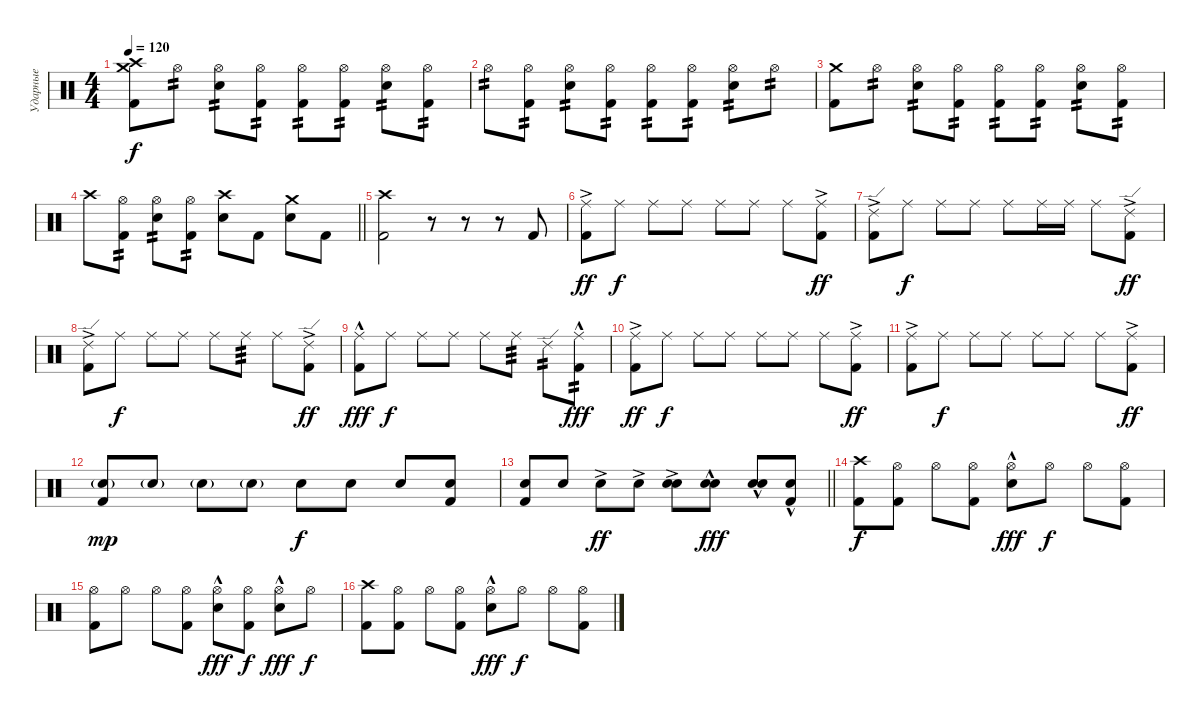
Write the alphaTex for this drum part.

\track ("Ударные" "Ударные") {instrument percussion}
\staff {score}
\articulation defaults
\ts (4 4)
\tempo 120
\clef neutral
\ks c
("Crash high (hit)" "Crash medium (hit)" "Kick (hit) 2").8{dy f} "Hi-Hat (open)".8{tp 2} ("Hi-Hat (open)" "Electric Snare (hit)").8{tp 2} ("Hi-Hat (open)" "Kick (hit) 2").8{tp 2} ("Hi-Hat (open)" "Kick (hit) 2").8{tp 2} ("Hi-Hat (open)" "Kick (hit) 2").8{tp 2} ("Hi-Hat (open)" "Electric Snare (hit)").8{tp 2} ("Hi-Hat (open)" "Kick (hit) 2").8{tp 2} |
"Hi-Hat (open)".8{tp 2} ("Hi-Hat (open)" "Kick (hit) 2").8{tp 2} ("Hi-Hat (open)" "Electric Snare (hit)").8{tp 2} ("Hi-Hat (open)" "Kick (hit) 2").8{tp 2} ("Hi-Hat (open)" "Kick (hit) 2").8{tp 2} ("Hi-Hat (open)" "Kick (hit) 2").8{tp 2} ("Hi-Hat (open)" "Electric Snare (hit)").8{tp 2} "Hi-Hat (open)".8{tp 2} |
("Crash medium (hit)" "Kick (hit) 2").8 "Hi-Hat (open)".8{tp 2} ("Hi-Hat (open)" "Electric Snare (hit)").8{tp 2} ("Hi-Hat (open)" "Kick (hit) 2").8{tp 2} ("Hi-Hat (open)" "Kick (hit) 2").8{tp 2} ("Hi-Hat (open)" "Kick (hit) 2").8{tp 2} ("Hi-Hat (open)" "Electric Snare (hit)").8{tp 2} ("Hi-Hat (open)" "Kick (hit) 2").8{tp 2} |
\barLineRight lightlight "Crash high (hit)".8
("Hi-Hat (open)" "Kick (hit) 2").8{tp 2} ("Hi-Hat (open)" "Electric Snare (hit)").8{tp 2} ("Hi-Hat (open)" "Kick (hit) 2").8{tp 2} ("Crash high (hit)" "Electric Snare (hit)").8 "Kick (hit) 2".8 ("Crash medium (hit)" "Electric Snare (hit)").8 "Kick (hit) 2".8 |
("Crash high (hit)" "Kick (hit) 2").2 r.8 r.8 r.8 "Kick (hit) 2".8 |
("Kick (hit) 2" "Ride (middle)"{ac}).8{dy ff} "Ride (middle)".8{dy f} "Ride (middle)".8 "Ride (middle)".8 "Ride (middle)".8 "Ride (middle)".8 "Ride (middle)".8 ("Kick (hit) 2" "Ride (middle)"{ac}).8{dy ff} |
("Kick (hit) 2" "Ride (edge) 2"{ac}).8 "Ride (middle)".8{dy f} "Ride (middle)".8 "Ride (middle)".8 "Ride (middle)".8 "Ride (middle)".16 "Ride (middle)".16 "Ride (middle)".8 ("Kick (hit) 2" "Ride (edge) 2"{ac}).8{dy ff} |
("Kick (hit) 2" "Ride (edge) 2"{ac}).8 "Ride (middle)".8{dy f} "Ride (middle)".8 "Ride (middle)".8 "Ride (middle)".8 "Ride (middle)".8{tp 3} "Ride (middle)".8 ("Kick (hit) 2"{ac} "Ride (edge) 2"{ac}).8{dy ff} |
("Kick (hit) 2" "Ride (middle)"{hac}).8{dy fff} "Ride (middle)".8{dy f} "Ride (middle)".8 "Ride (middle)".8 "Ride (middle)".8 "Ride (middle)".8{tp 3} "Ride (edge) 2".8{tp 2} ("Kick (hit) 2" "Ride (middle)"{hac}).8{tp 2 dy fff} |
("Kick (hit) 2" "Ride (middle)"{ac}).8{dy ff} "Ride (middle)".8{dy f} "Ride (middle)".8 "Ride (middle)".8 "Ride (middle)".8 "Ride (middle)".8 "Ride (middle)".8 ("Kick (hit) 2" "Ride (middle)"{ac}).8{dy ff} |
("Kick (hit) 2" "Ride (middle)"{ac}).8 "Ride (middle)".8{dy f} "Ride (middle)".8 "Ride (middle)".8 "Ride (middle)".8 "Ride (middle)".8 "Ride (middle)".8 ("Kick (hit) 2" "Ride (middle)"{ac}).8{dy ff} |
("Kick (hit) 2" "Electric Snare (hit)"{g}).8{dy mp} "Electric Snare (hit)"{g}.8 "Electric Snare (hit)"{g}.8 "Electric Snare (hit)"{g}.8 "Electric Snare (hit)".8{dy f} "Electric Snare (hit)".8 "Electric Snare (hit)".8 ("Kick (hit) 2" "Electric Snare (hit)").8 |
\barLineRight lightlight
("Electric Snare (hit)" "Kick (hit) 2").8 "Electric Snare (hit)".8 "Electric Snare (hit)"{ac}.8{dy ff} "Electric Snare (hit)"{ac}.8 ("Electric Snare (hit)"{ac} "Electric Snare (hit)").8 ("Electric Snare (hit)"{hac} "Electric Snare (hit)").8{dy fff} ("Electric Snare (hit)"{hac} "Electric Snare (hit)").8 ("Electric Snare (hit)"{hac} "Kick (hit) 2").8 |
("Crash high (hit)" "Kick (hit) 2").8{dy f} ("Hi-Hat (open)" "Kick (hit) 2").8 "Hi-Hat (open)".8 ("Hi-Hat (open)" "Kick (hit) 2").8 ("Hi-Hat (open)" "Electric Snare (hit)"{hac}).8{dy fff} "Hi-Hat (open)".8{dy f} "Hi-Hat (open)".8 ("Hi-Hat (open)" "Kick (hit) 2").8 |
("Hi-Hat (open)" "Kick (hit) 2").8 "Hi-Hat (open)".8 "Hi-Hat (open)".8 ("Hi-Hat (open)" "Kick (hit) 2").8 ("Hi-Hat (open)" "Electric Snare (hit)"{hac}).8{dy fff} ("Hi-Hat (open)" "Kick (hit) 2").8{dy f} ("Hi-Hat (open)" "Electric Snare (hit)"{hac}).8{dy fff} "Hi-Hat (open)".8{dy f} |
("Crash high (hit)" "Kick (hit) 2").8 ("Hi-Hat (open)" "Kick (hit) 2").8 "Hi-Hat (open)".8 ("Hi-Hat (open)" "Kick (hit) 2").8 ("Hi-Hat (open)" "Electric Snare (hit)"{hac}).8{dy fff} "Hi-Hat (open)".8{dy f} "Hi-Hat (open)".8 ("Hi-Hat (open)" "Kick (hit) 2").8
